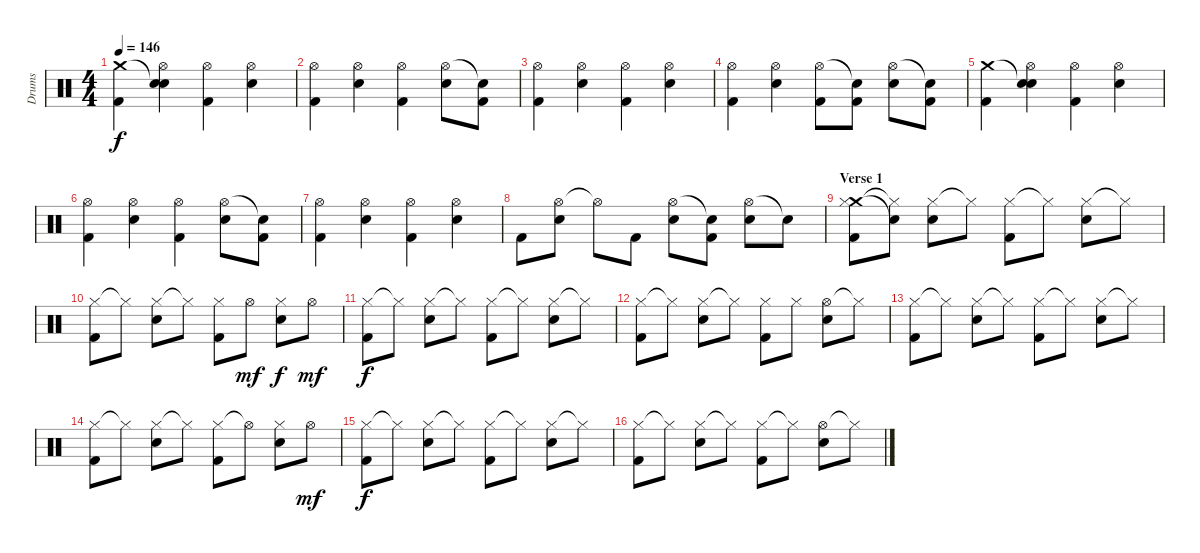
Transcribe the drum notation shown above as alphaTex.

\track ("Drums" "Drums") {instrument percussion}
\staff {score}
\articulation defaults
\ts (4 4)
\tempo 146
\clef neutral
\ks c
("Crash medium (hit)" "Kick (hit) 2").4{dy f} ("Snare (hit)"{t} "Hi-Hat (open)" "Electric Snare (hit)").4 ("Hi-Hat (open)" "Kick (hit) 2").4 ("Hi-Hat (open)" "Electric Snare (hit)").4 |
("Hi-Hat (open)" "Kick (hit) 2").4 ("Hi-Hat (open)" "Electric Snare (hit)").4 ("Hi-Hat (open)" "Kick (hit) 2").4 ("Hi-Hat (open)" "Electric Snare (hit)").8 ("Snare (hit)"{t} "Kick (hit) 2").8 |
("Hi-Hat (open)" "Kick (hit) 2").4 ("Hi-Hat (open)" "Electric Snare (hit)").4 ("Hi-Hat (open)" "Kick (hit) 2").4 ("Hi-Hat (open)" "Electric Snare (hit)").4 |
("Hi-Hat (open)" "Kick (hit) 2").4 ("Hi-Hat (open)" "Electric Snare (hit)").4 ("Hi-Hat (open)" "Kick (hit) 2").8 ("Snare (hit)"{t} "Kick (hit) 2").8 ("Hi-Hat (open)" "Electric Snare (hit)").8 ("Snare (hit)"{t} "Kick (hit) 2").8 |
("Crash medium (hit)" "Kick (hit) 2").4 ("Snare (hit)"{t} "Hi-Hat (open)" "Electric Snare (hit)").4 ("Hi-Hat (open)" "Kick (hit) 2").4 ("Hi-Hat (open)" "Electric Snare (hit)").4 |
("Hi-Hat (open)" "Kick (hit) 2").4 ("Hi-Hat (open)" "Electric Snare (hit)").4 ("Hi-Hat (open)" "Kick (hit) 2").4 ("Hi-Hat (open)" "Electric Snare (hit)").8 ("Snare (hit)"{t} "Kick (hit) 2").8 |
("Hi-Hat (open)" "Kick (hit) 2").4 ("Hi-Hat (open)" "Electric Snare (hit)").4 ("Hi-Hat (open)" "Kick (hit) 2").4 ("Hi-Hat (open)" "Electric Snare (hit)").4 |
"Kick (hit) 2".8 ("Hi-Hat (open)" "Electric Snare (hit)").8 "Hi-Hat (open)"{t}.8 "Kick (hit) 2".8 ("Hi-Hat (open)" "Electric Snare (hit)").8 ("Snare (hit)"{t} "Kick (hit) 2").8 ("Hi-Hat (open)" "Electric Snare (hit)").8 "Snare (hit)"{t}.8 |
\section ("" "Verse 1")
("Crash medium (hit)" "Hi-Hat (closed)" "Kick (hit) 2").8 ("Snare (hit)"{t} "Hi-Hat (closed)"{t}).8 ("Hi-Hat (closed)" "Electric Snare (hit)").8 "Hi-Hat (closed)"{t}.8 ("Hi-Hat (closed)" "Kick (hit) 2").8 "Hi-Hat (closed)"{t}.8 ("Hi-Hat (closed)" "Electric Snare (hit)").8 "Hi-Hat (closed)"{t}.8 |
("Hi-Hat (closed)" "Kick (hit) 2").8 "Hi-Hat (closed)"{t}.8 ("Hi-Hat (closed)" "Electric Snare (hit)").8 "Hi-Hat (closed)"{t}.8 ("Hi-Hat (closed)" "Kick (hit) 2").8 "Hi-Hat (open)".8{dy mf} ("Hi-Hat (closed)" "Electric Snare (hit)").8{dy f} "Hi-Hat (open)".8{dy mf} |
("Hi-Hat (closed)" "Kick (hit) 2").8{dy f} "Hi-Hat (closed)"{t}.8 ("Hi-Hat (closed)" "Electric Snare (hit)").8 "Hi-Hat (closed)"{t}.8 ("Hi-Hat (closed)" "Kick (hit) 2").8 "Hi-Hat (closed)"{t}.8 ("Hi-Hat (closed)" "Electric Snare (hit)").8 "Hi-Hat (closed)"{t}.8 |
("Hi-Hat (closed)" "Kick (hit) 2").8 "Hi-Hat (closed)"{t}.8 ("Hi-Hat (closed)" "Electric Snare (hit)").8 "Hi-Hat (closed)"{t}.8 ("Hi-Hat (closed)" "Kick (hit) 2").8 "Hi-Hat (closed)".8 ("Hi-Hat (open)" "Electric Snare (hit)").8 "Hi-Hat (closed)"{t}.8 |
("Hi-Hat (closed)" "Kick (hit) 2").8 "Hi-Hat (closed)"{t}.8 ("Hi-Hat (closed)" "Electric Snare (hit)").8 "Hi-Hat (closed)"{t}.8 ("Hi-Hat (closed)" "Kick (hit) 2").8 "Hi-Hat (closed)"{t}.8 ("Hi-Hat (closed)" "Electric Snare (hit)").8 "Hi-Hat (closed)"{t}.8 |
("Hi-Hat (closed)" "Kick (hit) 2").8 "Hi-Hat (closed)"{t}.8 ("Hi-Hat (closed)" "Electric Snare (hit)").8 "Hi-Hat (closed)"{t}.8 ("Hi-Hat (closed)" "Kick (hit) 2").8 "Hi-Hat (open)"{t}.8 ("Hi-Hat (closed)" "Electric Snare (hit)").8 "Hi-Hat (open)".8{dy mf} |
("Hi-Hat (closed)" "Kick (hit) 2").8{dy f} "Hi-Hat (closed)"{t}.8 ("Hi-Hat (closed)" "Electric Snare (hit)").8 "Hi-Hat (closed)"{t}.8 ("Hi-Hat (closed)" "Kick (hit) 2").8 "Hi-Hat (closed)"{t}.8 ("Hi-Hat (closed)" "Electric Snare (hit)").8 "Hi-Hat (closed)"{t}.8 |
("Hi-Hat (closed)" "Kick (hit) 2").8 "Hi-Hat (closed)"{t}.8 ("Hi-Hat (closed)" "Electric Snare (hit)").8 "Hi-Hat (closed)"{t}.8 ("Hi-Hat (closed)" "Kick (hit) 2").8 "Hi-Hat (closed)"{t}.8 ("Hi-Hat (open)" "Electric Snare (hit)").8 "Hi-Hat (closed)"{t}.8
